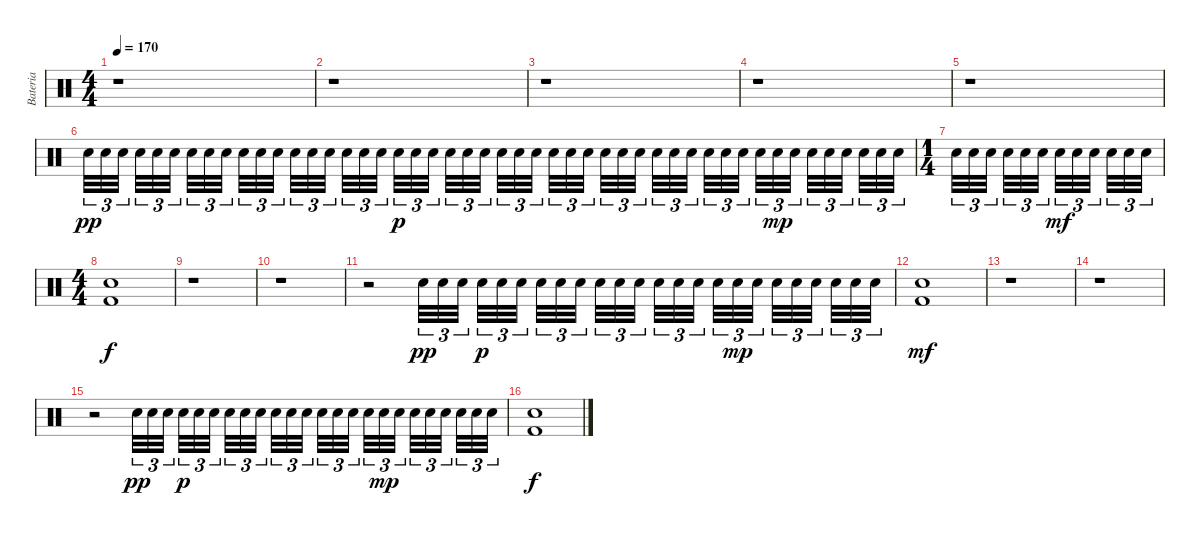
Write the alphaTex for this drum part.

\track ("Bateria" "Bateria") {instrument percussion}
\staff {score}
\articulation defaults
\ts (4 4)
\tempo 170
\tempo 86
\tempo 170
\clef neutral
\ks c
r.1{dy pp} |
r.1 |
r.1 |
r.1 |
r.1 |
"Snare (hit) 2".32{tu (3 2)} "Snare (hit) 2".32{tu (3 2)} "Snare (hit) 2".32{tu (3 2)} "Snare (hit) 2".32{tu (3 2)} "Snare (hit) 2".32{tu (3 2)} "Snare (hit) 2".32{tu (3 2)} "Snare (hit) 2".32{tu (3 2)} "Snare (hit) 2".32{tu (3 2)} "Snare (hit) 2".32{tu (3 2)} "Snare (hit) 2".32{tu (3 2)} "Snare (hit) 2".32{tu (3 2)} "Snare (hit) 2".32{tu (3 2)} "Snare (hit) 2".32{tu (3 2)} "Snare (hit) 2".32{tu (3 2)} "Snare (hit) 2".32{tu (3 2)} "Snare (hit) 2".32{tu (3 2)} "Snare (hit) 2".32{tu (3 2)} "Snare (hit) 2".32{tu (3 2)} "Snare (hit) 2".32{tu (3 2) dy p} "Snare (hit) 2".32{tu (3 2)} "Snare (hit) 2".32{tu (3 2)} "Snare (hit) 2".32{tu (3 2)} "Snare (hit) 2".32{tu (3 2)} "Snare (hit) 2".32{tu (3 2)} "Snare (hit) 2".32{tu (3 2)} "Snare (hit) 2".32{tu (3 2)} "Snare (hit) 2".32{tu (3 2)} "Snare (hit) 2".32{tu (3 2)} "Snare (hit) 2".32{tu (3 2)} "Snare (hit) 2".32{tu (3 2)} "Snare (hit) 2".32{tu (3 2)} "Snare (hit) 2".32{tu (3 2)} "Snare (hit) 2".32{tu (3 2)} "Snare (hit) 2".32{tu (3 2)} "Snare (hit) 2".32{tu (3 2)} "Snare (hit) 2".32{tu (3 2)} "Snare (hit) 2".32{tu (3 2)} "Snare (hit) 2".32{tu (3 2)} "Snare (hit) 2".32{tu (3 2)} "Snare (hit) 2".32{tu (3 2)} "Snare (hit) 2".32{tu (3 2) dy mp} "Snare (hit) 2".32{tu (3 2)} "Snare (hit) 2".32{tu (3 2)} "Snare (hit) 2".32{tu (3 2)} "Snare (hit) 2".32{tu (3 2)} "Snare (hit) 2".32{tu (3 2)} "Snare (hit) 2".32{tu (3 2)} "Snare (hit) 2".32{tu (3 2)} |
\ts (1 4)
"Snare (hit) 2".32{tu (3 2)} "Snare (hit) 2".32{tu (3 2)} "Snare (hit) 2".32{tu (3 2)} "Snare (hit) 2".32{tu (3 2)} "Snare (hit) 2".32{tu (3 2)} "Snare (hit) 2".32{tu (3 2)} "Snare (hit) 2".32{tu (3 2) dy mf} "Snare (hit) 2".32{tu (3 2)} "Snare (hit) 2".32{tu (3 2)} "Snare (hit) 2".32{tu (3 2)} "Snare (hit) 2".32{tu (3 2)} "Snare (hit) 2".32{tu (3 2)} |
\ts (4 4)
("Kick (hit) 2" "Snare (hit) 2").1{dy f} |
r.1 |
r.1 |
r.2 "Snare (hit) 2".32{tu (3 2) dy pp} "Snare (hit) 2".32{tu (3 2)} "Snare (hit) 2".32{tu (3 2)} "Snare (hit) 2".32{tu (3 2) dy p} "Snare (hit) 2".32{tu (3 2)} "Snare (hit) 2".32{tu (3 2)} "Snare (hit) 2".32{tu (3 2)} "Snare (hit) 2".32{tu (3 2)} "Snare (hit) 2".32{tu (3 2)} "Snare (hit) 2".32{tu (3 2)} "Snare (hit) 2".32{tu (3 2)} "Snare (hit) 2".32{tu (3 2)} "Snare (hit) 2".32{tu (3 2)} "Snare (hit) 2".32{tu (3 2)} "Snare (hit) 2".32{tu (3 2)} "Snare (hit) 2".32{tu (3 2)} "Snare (hit) 2".32{tu (3 2) dy mp} "Snare (hit) 2".32{tu (3 2)} "Snare (hit) 2".32{tu (3 2)} "Snare (hit) 2".32{tu (3 2)} "Snare (hit) 2".32{tu (3 2)} "Snare (hit) 2".32{tu (3 2)} "Snare (hit) 2".32{tu (3 2)} "Snare (hit) 2".32{tu (3 2)} |
("Kick (hit) 2" "Snare (hit) 2").1{dy mf} |
r.1 |
r.1 |
r.2 "Snare (hit) 2".32{tu (3 2) dy pp} "Snare (hit) 2".32{tu (3 2)} "Snare (hit) 2".32{tu (3 2)} "Snare (hit) 2".32{tu (3 2) dy p} "Snare (hit) 2".32{tu (3 2)} "Snare (hit) 2".32{tu (3 2)} "Snare (hit) 2".32{tu (3 2)} "Snare (hit) 2".32{tu (3 2)} "Snare (hit) 2".32{tu (3 2)} "Snare (hit) 2".32{tu (3 2)} "Snare (hit) 2".32{tu (3 2)} "Snare (hit) 2".32{tu (3 2)} "Snare (hit) 2".32{tu (3 2)} "Snare (hit) 2".32{tu (3 2)} "Snare (hit) 2".32{tu (3 2)} "Snare (hit) 2".32{tu (3 2)} "Snare (hit) 2".32{tu (3 2) dy mp} "Snare (hit) 2".32{tu (3 2)} "Snare (hit) 2".32{tu (3 2)} "Snare (hit) 2".32{tu (3 2)} "Snare (hit) 2".32{tu (3 2)} "Snare (hit) 2".32{tu (3 2)} "Snare (hit) 2".32{tu (3 2)} "Snare (hit) 2".32{tu (3 2)} |
("Kick (hit) 2" "Snare (hit) 2").1{dy f}
